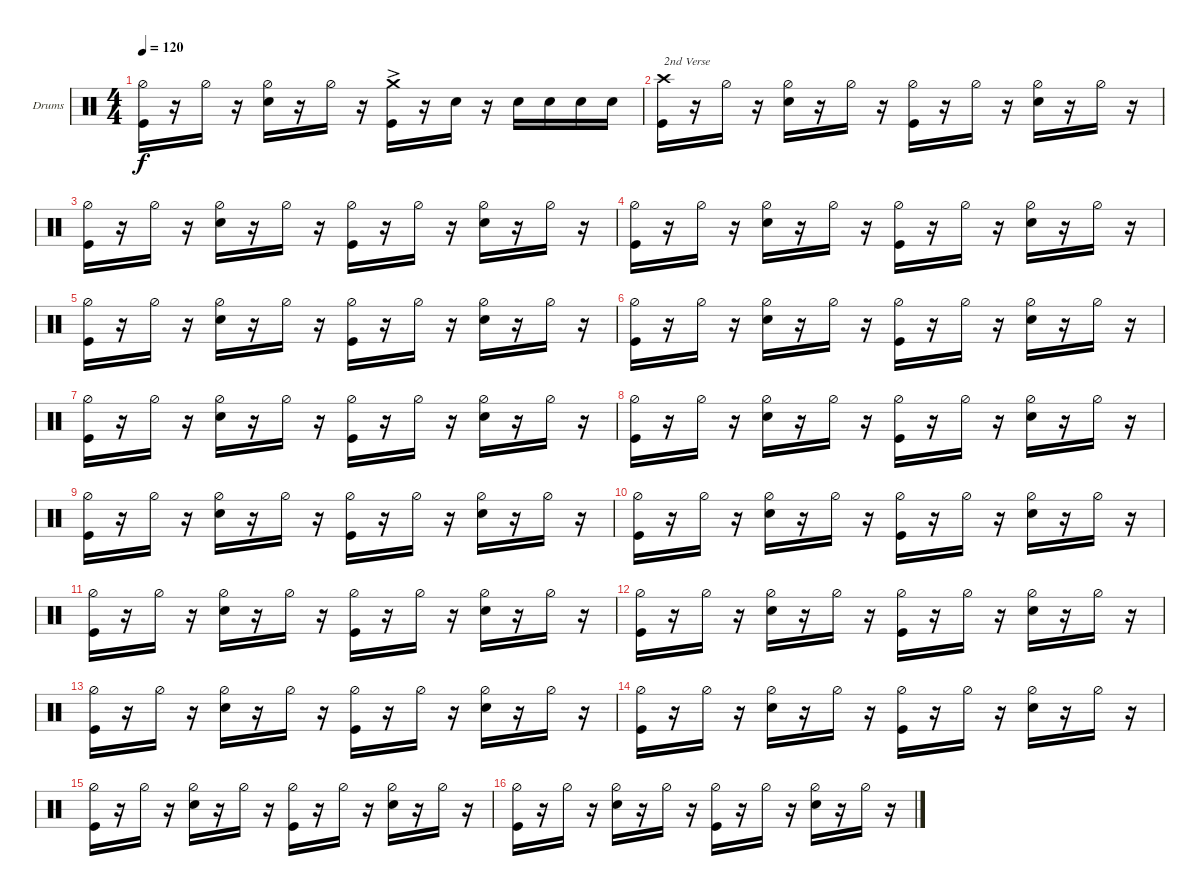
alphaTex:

\defaultSystemsLayout 4
\bracketExtendMode groupsimilarinstruments
\firstSystemTrackNameOrientation horizontal
\otherSystemsTrackNameOrientation horizontal
\track ("Drums  SK" "Drums") {instrument percussion}
\staff {score}
\articulation defaults
\ts (4 4)
\tempo 120
\clef neutral
\ks c
("Kick (hit)" "Hi-Hat (half)").16{dy f} r.16 "Hi-Hat (half)".16 r.16 ("Snare (hit) 2" "Hi-Hat (half)").16 r.16 "Hi-Hat (half)".16 r.16 ("Kick (hit)" "Crash medium (hit)"{ac}).16 r.16 "Snare (hit) 2".16 r.16 "Snare (hit) 2".16 "Snare (hit) 2".16 "Snare (hit) 2".16 "Snare (hit) 2".16 |
("Kick (hit)" "Crash high (hit)").16{txt "2nd Verse"} r.16 "Hi-Hat (half)".16 r.16 ("Snare (hit) 2" "Hi-Hat (half)").16 r.16 "Hi-Hat (half)".16 r.16 ("Kick (hit)" "Hi-Hat (half)").16 r.16 "Hi-Hat (half)".16 r.16 ("Snare (hit) 2" "Hi-Hat (half)").16 r.16 "Hi-Hat (half)".16 r.16 |
("Kick (hit)" "Hi-Hat (half)").16 r.16 "Hi-Hat (half)".16 r.16 ("Snare (hit) 2" "Hi-Hat (half)").16 r.16 "Hi-Hat (half)".16 r.16 ("Kick (hit)" "Hi-Hat (half)").16 r.16 "Hi-Hat (half)".16 r.16 ("Snare (hit) 2" "Hi-Hat (half)").16 r.16 "Hi-Hat (half)".16 r.16 |
("Kick (hit)" "Hi-Hat (half)").16 r.16 "Hi-Hat (half)".16 r.16 ("Snare (hit) 2" "Hi-Hat (half)").16 r.16 "Hi-Hat (half)".16 r.16 ("Kick (hit)" "Hi-Hat (half)").16 r.16 "Hi-Hat (half)".16 r.16 ("Snare (hit) 2" "Hi-Hat (half)").16 r.16 "Hi-Hat (half)".16 r.16 |
("Kick (hit)" "Hi-Hat (half)").16 r.16 "Hi-Hat (half)".16 r.16 ("Snare (hit) 2" "Hi-Hat (half)").16 r.16 "Hi-Hat (half)".16 r.16 ("Kick (hit)" "Hi-Hat (half)").16 r.16 "Hi-Hat (half)".16 r.16 ("Snare (hit) 2" "Hi-Hat (half)").16 r.16 "Hi-Hat (half)".16 r.16 |
("Kick (hit)" "Hi-Hat (half)").16 r.16 "Hi-Hat (half)".16 r.16 ("Snare (hit) 2" "Hi-Hat (half)").16 r.16 "Hi-Hat (half)".16 r.16 ("Kick (hit)" "Hi-Hat (half)").16 r.16 "Hi-Hat (half)".16 r.16 ("Snare (hit) 2" "Hi-Hat (half)").16 r.16 "Hi-Hat (half)".16 r.16 |
("Kick (hit)" "Hi-Hat (half)").16 r.16 "Hi-Hat (half)".16 r.16 ("Snare (hit) 2" "Hi-Hat (half)").16 r.16 "Hi-Hat (half)".16 r.16 ("Kick (hit)" "Hi-Hat (half)").16 r.16 "Hi-Hat (half)".16 r.16 ("Snare (hit) 2" "Hi-Hat (half)").16 r.16 "Hi-Hat (half)".16 r.16 |
("Kick (hit)" "Hi-Hat (half)").16 r.16 "Hi-Hat (half)".16 r.16 ("Snare (hit) 2" "Hi-Hat (half)").16 r.16 "Hi-Hat (half)".16 r.16 ("Kick (hit)" "Hi-Hat (half)").16 r.16 "Hi-Hat (half)".16 r.16 ("Snare (hit) 2" "Hi-Hat (half)").16 r.16 "Hi-Hat (half)".16 r.16 |
("Kick (hit)" "Hi-Hat (half)").16 r.16 "Hi-Hat (half)".16 r.16 ("Snare (hit) 2" "Hi-Hat (half)").16 r.16 "Hi-Hat (half)".16 r.16 ("Kick (hit)" "Hi-Hat (half)").16 r.16 "Hi-Hat (half)".16 r.16 ("Snare (hit) 2" "Hi-Hat (half)").16 r.16 "Hi-Hat (half)".16 r.16 |
("Kick (hit)" "Hi-Hat (half)").16 r.16 "Hi-Hat (half)".16 r.16 ("Snare (hit) 2" "Hi-Hat (half)").16 r.16 "Hi-Hat (half)".16 r.16 ("Kick (hit)" "Hi-Hat (half)").16 r.16 "Hi-Hat (half)".16 r.16 ("Snare (hit) 2" "Hi-Hat (half)").16 r.16 "Hi-Hat (half)".16 r.16 |
("Kick (hit)" "Hi-Hat (half)").16 r.16 "Hi-Hat (half)".16 r.16 ("Snare (hit) 2" "Hi-Hat (half)").16 r.16 "Hi-Hat (half)".16 r.16 ("Kick (hit)" "Hi-Hat (half)").16 r.16 "Hi-Hat (half)".16 r.16 ("Snare (hit) 2" "Hi-Hat (half)").16 r.16 "Hi-Hat (half)".16 r.16 |
("Kick (hit)" "Hi-Hat (half)").16 r.16 "Hi-Hat (half)".16 r.16 ("Snare (hit) 2" "Hi-Hat (half)").16 r.16 "Hi-Hat (half)".16 r.16 ("Kick (hit)" "Hi-Hat (half)").16 r.16 "Hi-Hat (half)".16 r.16 ("Snare (hit) 2" "Hi-Hat (half)").16 r.16 "Hi-Hat (half)".16 r.16 |
("Kick (hit)" "Hi-Hat (half)").16 r.16 "Hi-Hat (half)".16 r.16 ("Snare (hit) 2" "Hi-Hat (half)").16 r.16 "Hi-Hat (half)".16 r.16 ("Kick (hit)" "Hi-Hat (half)").16 r.16 "Hi-Hat (half)".16 r.16 ("Snare (hit) 2" "Hi-Hat (half)").16 r.16 "Hi-Hat (half)".16 r.16 |
("Kick (hit)" "Hi-Hat (half)").16 r.16 "Hi-Hat (half)".16 r.16 ("Snare (hit) 2" "Hi-Hat (half)").16 r.16 "Hi-Hat (half)".16 r.16 ("Kick (hit)" "Hi-Hat (half)").16 r.16 "Hi-Hat (half)".16 r.16 ("Snare (hit) 2" "Hi-Hat (half)").16 r.16 "Hi-Hat (half)".16 r.16 |
("Kick (hit)" "Hi-Hat (half)").16 r.16 "Hi-Hat (half)".16 r.16 ("Snare (hit) 2" "Hi-Hat (half)").16 r.16 "Hi-Hat (half)".16 r.16 ("Kick (hit)" "Hi-Hat (half)").16 r.16 "Hi-Hat (half)".16 r.16 ("Snare (hit) 2" "Hi-Hat (half)").16 r.16 "Hi-Hat (half)".16 r.16 |
("Kick (hit)" "Hi-Hat (half)").16 r.16 "Hi-Hat (half)".16 r.16 ("Snare (hit) 2" "Hi-Hat (half)").16 r.16 "Hi-Hat (half)".16 r.16 ("Kick (hit)" "Hi-Hat (half)").16 r.16 "Hi-Hat (half)".16 r.16 ("Snare (hit) 2" "Hi-Hat (half)").16 r.16 "Hi-Hat (half)".16 r.16
